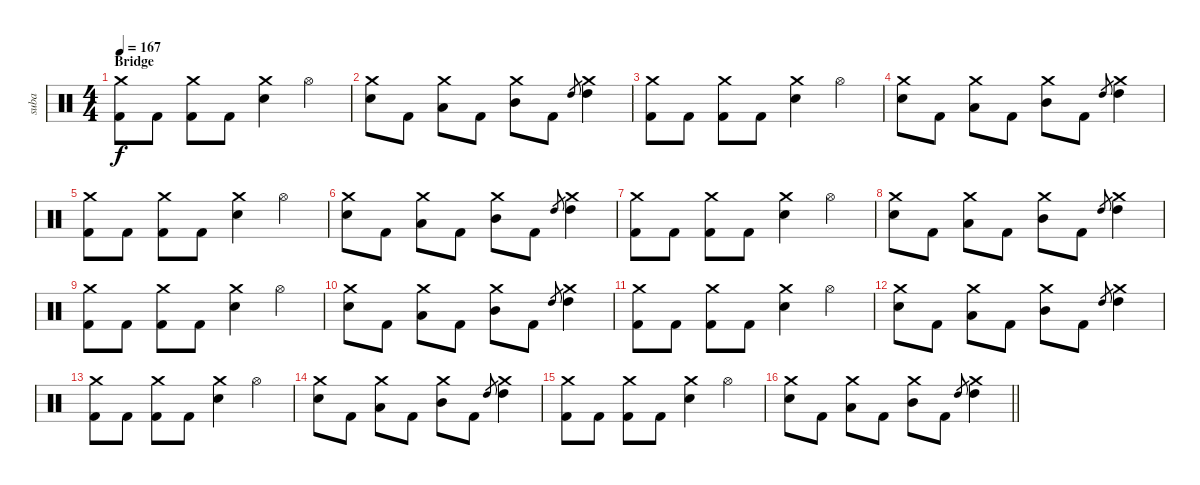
\track ("suba" "suba") {instrument percussion}
\staff {score}
\articulation defaults
\ts (4 4)
\section ("" "Bridge")
\tempo 167
\clef neutral
\ks c
("Crash medium (hit)" "Kick (hit) 2").8{dy f} "Kick (hit) 2".8 ("Crash medium (hit)" "Kick (hit) 2").8 "Kick (hit) 2".8 ("Crash medium (hit)" "Electric Snare (hit)").4 "Hi-Hat (open)".4 |
("Crash medium (hit)" "Electric Snare (hit)").8 "Kick (hit) 2".8 ("Crash medium (hit)" "Low Tom (hit)").8 "Kick (hit) 2".8 ("Crash medium (hit)" "Mid Tom (hit)").8 "Kick (hit) 2".8 "High Tom (hit)".8{gr} ("Crash medium (hit)" "High Tom (hit)").4 |
("Crash medium (hit)" "Kick (hit) 2").8 "Kick (hit) 2".8 ("Crash medium (hit)" "Kick (hit) 2").8 "Kick (hit) 2".8 ("Crash medium (hit)" "Electric Snare (hit)").4 "Hi-Hat (open)".4 |
("Crash medium (hit)" "Electric Snare (hit)").8 "Kick (hit) 2".8 ("Crash medium (hit)" "Low Tom (hit)").8 "Kick (hit) 2".8 ("Crash medium (hit)" "Mid Tom (hit)").8 "Kick (hit) 2".8 "High Tom (hit)".8{gr} ("Crash medium (hit)" "High Tom (hit)").4 |
("Crash medium (hit)" "Kick (hit) 2").8 "Kick (hit) 2".8 ("Crash medium (hit)" "Kick (hit) 2").8 "Kick (hit) 2".8 ("Crash medium (hit)" "Electric Snare (hit)").4 "Hi-Hat (open)".4 |
("Crash medium (hit)" "Electric Snare (hit)").8 "Kick (hit) 2".8 ("Crash medium (hit)" "Low Tom (hit)").8 "Kick (hit) 2".8 ("Crash medium (hit)" "Mid Tom (hit)").8 "Kick (hit) 2".8 "High Tom (hit)".8{gr} ("Crash medium (hit)" "High Tom (hit)").4 |
("Crash medium (hit)" "Kick (hit) 2").8 "Kick (hit) 2".8 ("Crash medium (hit)" "Kick (hit) 2").8 "Kick (hit) 2".8 ("Crash medium (hit)" "Electric Snare (hit)").4 "Hi-Hat (open)".4 |
("Crash medium (hit)" "Electric Snare (hit)").8 "Kick (hit) 2".8 ("Crash medium (hit)" "Low Tom (hit)").8 "Kick (hit) 2".8 ("Crash medium (hit)" "Mid Tom (hit)").8 "Kick (hit) 2".8 "High Tom (hit)".8{gr} ("Crash medium (hit)" "High Tom (hit)").4 |
("Crash medium (hit)" "Kick (hit) 2").8 "Kick (hit) 2".8 ("Crash medium (hit)" "Kick (hit) 2").8 "Kick (hit) 2".8 ("Crash medium (hit)" "Electric Snare (hit)").4 "Hi-Hat (open)".4 |
("Crash medium (hit)" "Electric Snare (hit)").8 "Kick (hit) 2".8 ("Crash medium (hit)" "Low Tom (hit)").8 "Kick (hit) 2".8 ("Crash medium (hit)" "Mid Tom (hit)").8 "Kick (hit) 2".8 "High Tom (hit)".8{gr} ("Crash medium (hit)" "High Tom (hit)").4 |
("Crash medium (hit)" "Kick (hit) 2").8 "Kick (hit) 2".8 ("Crash medium (hit)" "Kick (hit) 2").8 "Kick (hit) 2".8 ("Crash medium (hit)" "Electric Snare (hit)").4 "Hi-Hat (open)".4 |
("Crash medium (hit)" "Electric Snare (hit)").8 "Kick (hit) 2".8 ("Crash medium (hit)" "Low Tom (hit)").8 "Kick (hit) 2".8 ("Crash medium (hit)" "Mid Tom (hit)").8 "Kick (hit) 2".8 "High Tom (hit)".8{gr} ("Crash medium (hit)" "High Tom (hit)").4 |
("Crash medium (hit)" "Kick (hit) 2").8 "Kick (hit) 2".8 ("Crash medium (hit)" "Kick (hit) 2").8 "Kick (hit) 2".8 ("Crash medium (hit)" "Electric Snare (hit)").4 "Hi-Hat (open)".4 |
("Crash medium (hit)" "Electric Snare (hit)").8 "Kick (hit) 2".8 ("Crash medium (hit)" "Low Tom (hit)").8 "Kick (hit) 2".8 ("Crash medium (hit)" "Mid Tom (hit)").8 "Kick (hit) 2".8 "High Tom (hit)".8{gr} ("Crash medium (hit)" "High Tom (hit)").4 |
("Crash medium (hit)" "Kick (hit) 2").8 "Kick (hit) 2".8 ("Crash medium (hit)" "Kick (hit) 2").8 "Kick (hit) 2".8 ("Crash medium (hit)" "Electric Snare (hit)").4 "Hi-Hat (open)".4 |
\barLineRight lightlight
("Crash medium (hit)" "Electric Snare (hit)").8 "Kick (hit) 2".8 ("Crash medium (hit)" "Low Tom (hit)").8 "Kick (hit) 2".8 ("Crash medium (hit)" "Mid Tom (hit)").8 "Kick (hit) 2".8 "High Tom (hit)".8{gr} ("Crash medium (hit)" "High Tom (hit)").4
